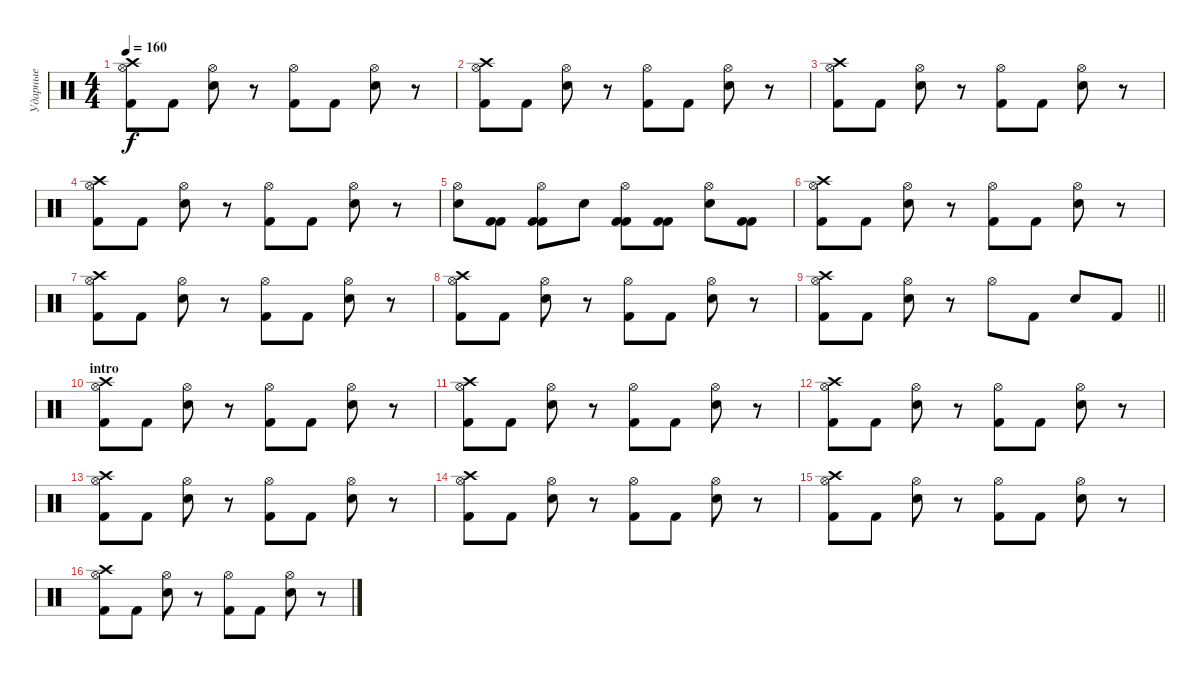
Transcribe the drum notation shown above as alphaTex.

\track ("Ударные" "Ударные") {instrument percussion}
\staff {score}
\articulation defaults
\ts (4 4)
\tempo 160
\clef neutral
\ks c
("Crash high (hit)" "Kick (hit) 2" "Hi-Hat (open)").8{dy f} "Kick (hit) 2".8 ("Snare (hit) 2" "Hi-Hat (open)").8 r.8 ("Kick (hit) 2" "Hi-Hat (open)").8 "Kick (hit) 2".8 ("Snare (hit) 2" "Hi-Hat (open)").8 r.8 |
("Crash high (hit)" "Kick (hit) 2" "Hi-Hat (open)").8 "Kick (hit) 2".8 ("Snare (hit) 2" "Hi-Hat (open)").8 r.8 ("Kick (hit) 2" "Hi-Hat (open)").8 "Kick (hit) 2".8 ("Snare (hit) 2" "Hi-Hat (open)").8 r.8 |
("Crash high (hit)" "Kick (hit) 2" "Hi-Hat (open)").8 "Kick (hit) 2".8 ("Snare (hit) 2" "Hi-Hat (open)").8 r.8 ("Kick (hit) 2" "Hi-Hat (open)").8 "Kick (hit) 2".8 ("Snare (hit) 2" "Hi-Hat (open)").8 r.8 |
("Crash high (hit)" "Kick (hit) 2" "Hi-Hat (open)").8 "Kick (hit) 2".8 ("Snare (hit) 2" "Hi-Hat (open)").8 r.8 ("Kick (hit) 2" "Hi-Hat (open)").8 "Kick (hit) 2".8 ("Snare (hit) 2" "Hi-Hat (open)").8 r.8 |
("Hi-Hat (open)" "Snare (hit) 2").8 ("Kick (hit) 2" "Kick (hit) 2").8 ("Kick (hit) 2" "Hi-Hat (open)" "Kick (hit) 2").8 "Snare (hit) 2".8 ("Kick (hit) 2" "Hi-Hat (open)" "Kick (hit) 2").8 ("Kick (hit) 2" "Kick (hit) 2").8 ("Hi-Hat (open)" "Snare (hit) 2").8 ("Kick (hit) 2" "Kick (hit) 2").8 |
("Crash high (hit)" "Kick (hit) 2" "Hi-Hat (open)").8 "Kick (hit) 2".8 ("Snare (hit) 2" "Hi-Hat (open)").8 r.8 ("Kick (hit) 2" "Hi-Hat (open)").8 "Kick (hit) 2".8 ("Snare (hit) 2" "Hi-Hat (open)").8 r.8 |
("Crash high (hit)" "Kick (hit) 2" "Hi-Hat (open)").8 "Kick (hit) 2".8 ("Snare (hit) 2" "Hi-Hat (open)").8 r.8 ("Kick (hit) 2" "Hi-Hat (open)").8 "Kick (hit) 2".8 ("Snare (hit) 2" "Hi-Hat (open)").8 r.8 |
("Crash high (hit)" "Kick (hit) 2" "Hi-Hat (open)").8 "Kick (hit) 2".8 ("Snare (hit) 2" "Hi-Hat (open)").8 r.8 ("Kick (hit) 2" "Hi-Hat (open)").8 "Kick (hit) 2".8 ("Snare (hit) 2" "Hi-Hat (open)").8 r.8 |
\barLineRight lightlight
("Crash high (hit)" "Kick (hit) 2" "Hi-Hat (open)").8 "Kick (hit) 2".8 ("Snare (hit) 2" "Hi-Hat (open)").8 r.8 "Hi-Hat (open)".8 "Kick (hit) 2".8 "Snare (hit) 2".8 "Kick (hit) 2".8 |
\section ("" "intro")
("Crash high (hit)" "Kick (hit) 2" "Hi-Hat (open)").8 "Kick (hit) 2".8 ("Snare (hit) 2" "Hi-Hat (open)").8 r.8 ("Kick (hit) 2" "Hi-Hat (open)").8 "Kick (hit) 2".8 ("Snare (hit) 2" "Hi-Hat (open)").8 r.8 |
("Crash high (hit)" "Kick (hit) 2" "Hi-Hat (open)").8 "Kick (hit) 2".8 ("Snare (hit) 2" "Hi-Hat (open)").8 r.8 ("Kick (hit) 2" "Hi-Hat (open)").8 "Kick (hit) 2".8 ("Snare (hit) 2" "Hi-Hat (open)").8 r.8 |
("Crash high (hit)" "Kick (hit) 2" "Hi-Hat (open)").8 "Kick (hit) 2".8 ("Snare (hit) 2" "Hi-Hat (open)").8 r.8 ("Kick (hit) 2" "Hi-Hat (open)").8 "Kick (hit) 2".8 ("Snare (hit) 2" "Hi-Hat (open)").8 r.8 |
("Crash high (hit)" "Kick (hit) 2" "Hi-Hat (open)").8 "Kick (hit) 2".8 ("Snare (hit) 2" "Hi-Hat (open)").8 r.8 ("Kick (hit) 2" "Hi-Hat (open)").8 "Kick (hit) 2".8 ("Snare (hit) 2" "Hi-Hat (open)").8 r.8 |
("Crash high (hit)" "Kick (hit) 2" "Hi-Hat (open)").8 "Kick (hit) 2".8 ("Snare (hit) 2" "Hi-Hat (open)").8 r.8 ("Kick (hit) 2" "Hi-Hat (open)").8 "Kick (hit) 2".8 ("Snare (hit) 2" "Hi-Hat (open)").8 r.8 |
("Crash high (hit)" "Kick (hit) 2" "Hi-Hat (open)").8 "Kick (hit) 2".8 ("Snare (hit) 2" "Hi-Hat (open)").8 r.8 ("Kick (hit) 2" "Hi-Hat (open)").8 "Kick (hit) 2".8 ("Snare (hit) 2" "Hi-Hat (open)").8 r.8 |
("Crash high (hit)" "Kick (hit) 2" "Hi-Hat (open)").8 "Kick (hit) 2".8 ("Snare (hit) 2" "Hi-Hat (open)").8 r.8 ("Kick (hit) 2" "Hi-Hat (open)").8 "Kick (hit) 2".8 ("Snare (hit) 2" "Hi-Hat (open)").8 r.8
